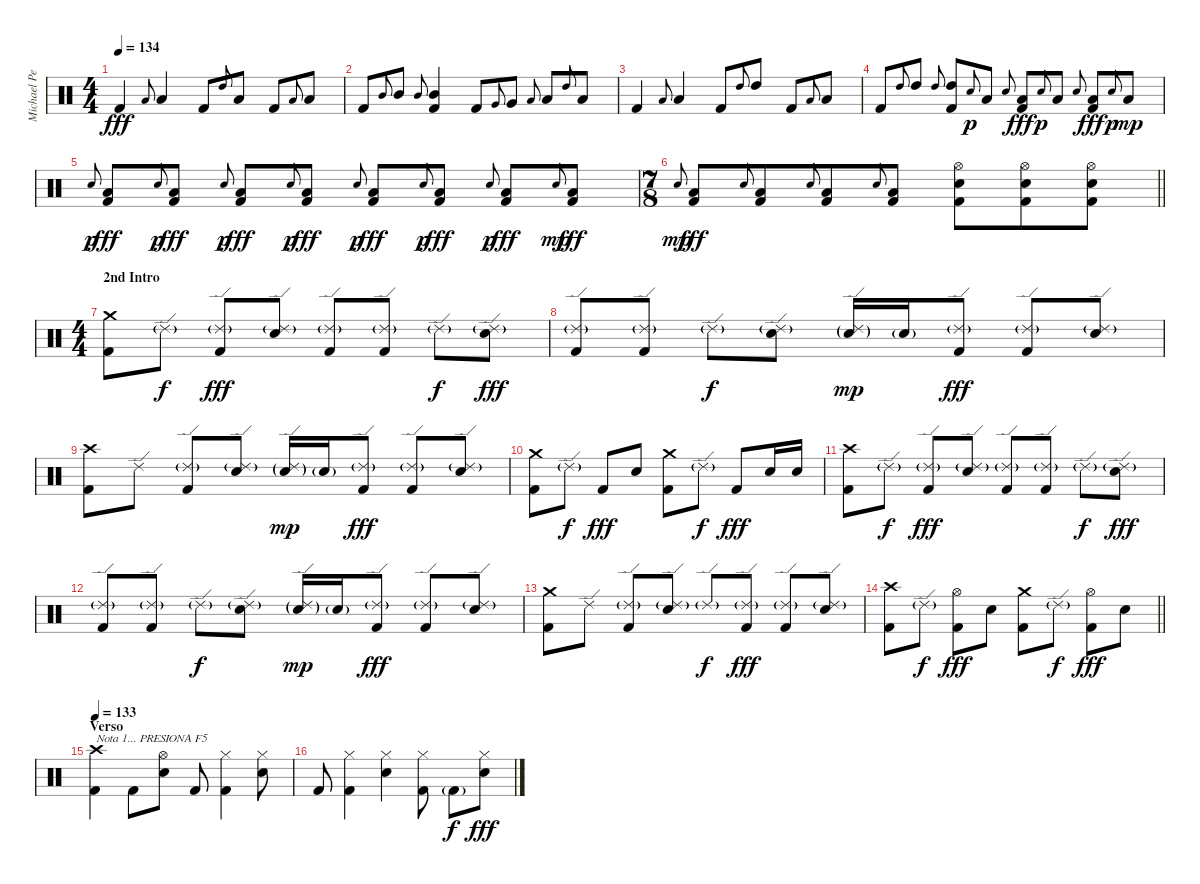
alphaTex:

\track ("Michael Pedicone [Drums]" "Michael Pe") {instrument percussion}
\staff
\articulation defaults
\ts (4 4)
\tempo 134
\clef neutral
\ks c "Kick (hit) 2".4{dy fff} "Low Tom (hit)".8{gr onbeat} "Low Floor Tom (hit)".4 "Kick (hit) 2".8 "High Tom (hit)".8{gr onbeat} "Low Tom (hit)".8 "Kick (hit) 2".8 "Low Tom (hit)".8{gr onbeat} "Low Tom (hit)".8
|
"Kick (hit) 2".8 "Mid Tom (hit)".8{gr onbeat} "Mid Tom (hit)".8 "Mid Tom (hit)".8{gr onbeat} ("Mid Tom (hit)" "Kick (hit) 2").4 "Kick (hit) 2".8 "Very Low Tom (hit)".8{gr onbeat} "Very Low Tom (hit)".8 "Low Tom (hit)".8{gr onbeat} "Low Tom (hit)".8 "High Tom (hit)".8{gr onbeat} "Low Tom (hit)".8 |
"Kick (hit) 2".4 "Low Tom (hit)".8{gr onbeat} "Low Floor Tom (hit)".4 "Kick (hit) 2".8 "High Tom (hit)".8{gr onbeat} "High Tom (hit)".8 "Kick (hit) 2".8 "Low Tom (hit)".8{gr onbeat} "Low Floor Tom (hit)".8 |
"Kick (hit) 2".8 "High Tom (hit)".8{gr onbeat} "High Tom (hit)".8 "High Tom (hit)".8{gr onbeat} ("High Tom (hit)" "Kick (hit) 2").8 "Electric Snare (hit)".8{gr onbeat dy p} "Low Floor Tom (hit)".8 "Electric Snare (hit)".8{gr onbeat} ("Low Floor Tom (hit)" "Kick (hit) 2").8{dy fff} "Electric Snare (hit)".8{gr onbeat dy p} "Low Floor Tom (hit)".8 "Electric Snare (hit)".8{gr onbeat} ("Low Floor Tom (hit)" "Kick (hit) 2").8{dy fff} "Electric Snare (hit)".8{gr onbeat dy p} "Low Floor Tom (hit)".8{dy mp} |
"Electric Snare (hit)".8{gr onbeat dy p} ("Low Floor Tom (hit)" "Kick (hit) 2").8{dy fff} "Electric Snare (hit)".8{gr onbeat dy p} ("Low Floor Tom (hit)" "Kick (hit) 2").8{dy fff} "Electric Snare (hit)".8{gr onbeat dy p} ("Low Floor Tom (hit)" "Kick (hit) 2").8{dy fff} "Electric Snare (hit)".8{gr onbeat dy p} ("Low Floor Tom (hit)" "Kick (hit) 2").8{dy fff} "Electric Snare (hit)".8{gr onbeat dy p} ("Low Floor Tom (hit)" "Kick (hit) 2").8{dy fff} "Electric Snare (hit)".8{gr onbeat dy p} ("Low Floor Tom (hit)" "Kick (hit) 2").8{dy fff} "Electric Snare (hit)".8{gr onbeat dy p} ("Low Floor Tom (hit)" "Kick (hit) 2").8{dy fff} "Electric Snare (hit)".8{gr onbeat dy mp} ("Low Floor Tom (hit)" "Kick (hit) 2").8{dy fff} |
\ts (7 8)
\barLineRight lightlight "Electric Snare (hit)".8{gr onbeat dy mp}
("Low Floor Tom (hit)" "Kick (hit) 2").8{dy fff} "Electric Snare (hit)".8{gr onbeat} ("Low Floor Tom (hit)" "Kick (hit) 2").8 "Electric Snare (hit)".8{gr onbeat} ("Low Floor Tom (hit)" "Kick (hit) 2").8 "Electric Snare (hit)".8{gr onbeat} ("Low Floor Tom (hit)" "Kick (hit) 2").8 ("Hi-Hat (open)" "Electric Snare (hit)" "Kick (hit) 2").8 ("Hi-Hat (open)" "Electric Snare (hit)" "Kick (hit) 2").8 ("Hi-Hat (open)" "Electric Snare (hit)" "Kick (hit) 2").8 |
\ts (4 4)
\section ("" "2nd Intro")
("Crash medium (hit)" "Kick (hit) 2").8 "Ride (edge) 2"{g}.8{dy f} ("Ride (edge) 2"{g} "Kick (hit) 2").8{dy fff} ("Ride (edge) 2"{g} "Electric Snare (hit)").8 ("Ride (edge) 2"{g} "Kick (hit) 2").8 ("Ride (edge) 2"{g} "Kick (hit) 2").8 "Ride (edge) 2"{g}.8{dy f} ("Ride (edge) 2"{g} "Electric Snare (hit)").8{dy fff} |
("Ride (edge) 2"{g} "Kick (hit) 2").8 ("Ride (edge) 2"{g} "Kick (hit) 2").8 "Ride (edge) 2"{g}.8{dy f} ("Ride (edge) 2"{g} "Electric Snare (hit)").8 ("Ride (edge) 2"{g} "Electric Snare (hit)"{g}).16{dy mp} "Electric Snare (hit)"{g}.16 ("Ride (edge) 2"{g} "Kick (hit) 2").8{dy fff} ("Ride (edge) 2"{g} "Kick (hit) 2").8 ("Ride (edge) 2"{g} "Electric Snare (hit)").8 |
("Crash high (hit)" "Kick (hit) 2").8 "Ride (edge) 2".8 ("Ride (edge) 2"{g} "Kick (hit) 2").8 ("Ride (edge) 2"{g} "Electric Snare (hit)").8 ("Ride (edge) 2"{g} "Electric Snare (hit)"{g}).16{dy mp} "Electric Snare (hit)"{g}.16 ("Ride (edge) 2"{g} "Kick (hit) 2").8{dy fff} ("Ride (edge) 2"{g} "Kick (hit) 2").8 ("Ride (edge) 2"{g} "Electric Snare (hit)").8 |
("Crash medium (hit)" "Kick (hit) 2").8 "Ride (edge) 2"{g}.8{dy f} "Kick (hit) 2".8{dy fff} "Electric Snare (hit)".8 ("Crash medium (hit)" "Kick (hit) 2").8 "Ride (edge) 2"{g}.8{dy f} "Kick (hit) 2".8{dy fff} "Electric Snare (hit)".16 "Electric Snare (hit)".16 |
("Crash high (hit)" "Kick (hit) 2").8 "Ride (edge) 2"{g}.8{dy f} ("Ride (edge) 2"{g} "Kick (hit) 2").8{dy fff} ("Ride (edge) 2"{g} "Electric Snare (hit)").8 ("Ride (edge) 2"{g} "Kick (hit) 2").8 ("Ride (edge) 2"{g} "Kick (hit) 2").8 "Ride (edge) 2"{g}.8{dy f} ("Ride (edge) 2"{g} "Electric Snare (hit)").8{dy fff} |
("Ride (edge) 2"{g} "Kick (hit) 2").8 ("Ride (edge) 2"{g} "Kick (hit) 2").8 "Ride (edge) 2"{g}.8{dy f} ("Ride (edge) 2"{g} "Electric Snare (hit)").8 ("Ride (edge) 2"{g} "Electric Snare (hit)"{g}).16{dy mp} "Electric Snare (hit)"{g}.16 ("Ride (edge) 2"{g} "Kick (hit) 2").8{dy fff} ("Ride (edge) 2"{g} "Kick (hit) 2").8 ("Ride (edge) 2"{g} "Electric Snare (hit)").8 |
("Crash medium (hit)" "Kick (hit) 2").8 "Ride (edge) 2".8 ("Ride (edge) 2"{g} "Kick (hit) 2").8 ("Ride (edge) 2"{g} "Electric Snare (hit)").8 "Ride (edge) 2"{g}.8{dy f} ("Ride (edge) 2"{g} "Kick (hit) 2").8{dy fff} ("Ride (edge) 2"{g} "Kick (hit) 2").8 ("Ride (edge) 2"{g} "Electric Snare (hit)").8 |
\barLineRight lightlight
("Crash high (hit)" "Kick (hit) 2").8 "Ride (edge) 2"{g}.8{dy f} ("Hi-Hat (open)" "Kick (hit) 2").8{dy fff} "Electric Snare (hit)".8 ("Crash medium (hit)" "Kick (hit) 2").8 "Ride (edge) 2"{g}.8{dy f} ("Hi-Hat (open)" "Kick (hit) 2").8{dy fff} "Electric Snare (hit)".8 |
\section ("" "Verso")
\tempo 133
("Crash high (hit)" "Kick (hit) 2").4{txt "Nota 1... PRESIONA F5"} "Kick (hit) 2".8 ("Hi-Hat (open)" "Electric Snare (hit)").8 "Kick (hit) 2".8 ("Hi-Hat (closed)" "Kick (hit) 2").4 ("Hi-Hat (closed)" "Electric Snare (hit)").8 |
"Kick (hit) 2".8 ("Hi-Hat (closed)" "Kick (hit) 2").4 ("Hi-Hat (closed)" "Electric Snare (hit)").4 ("Hi-Hat (closed)" "Kick (hit) 2").8 "Kick (hit) 2"{g}.8{dy f} ("Hi-Hat (closed)" "Electric Snare (hit)").8{dy fff}
